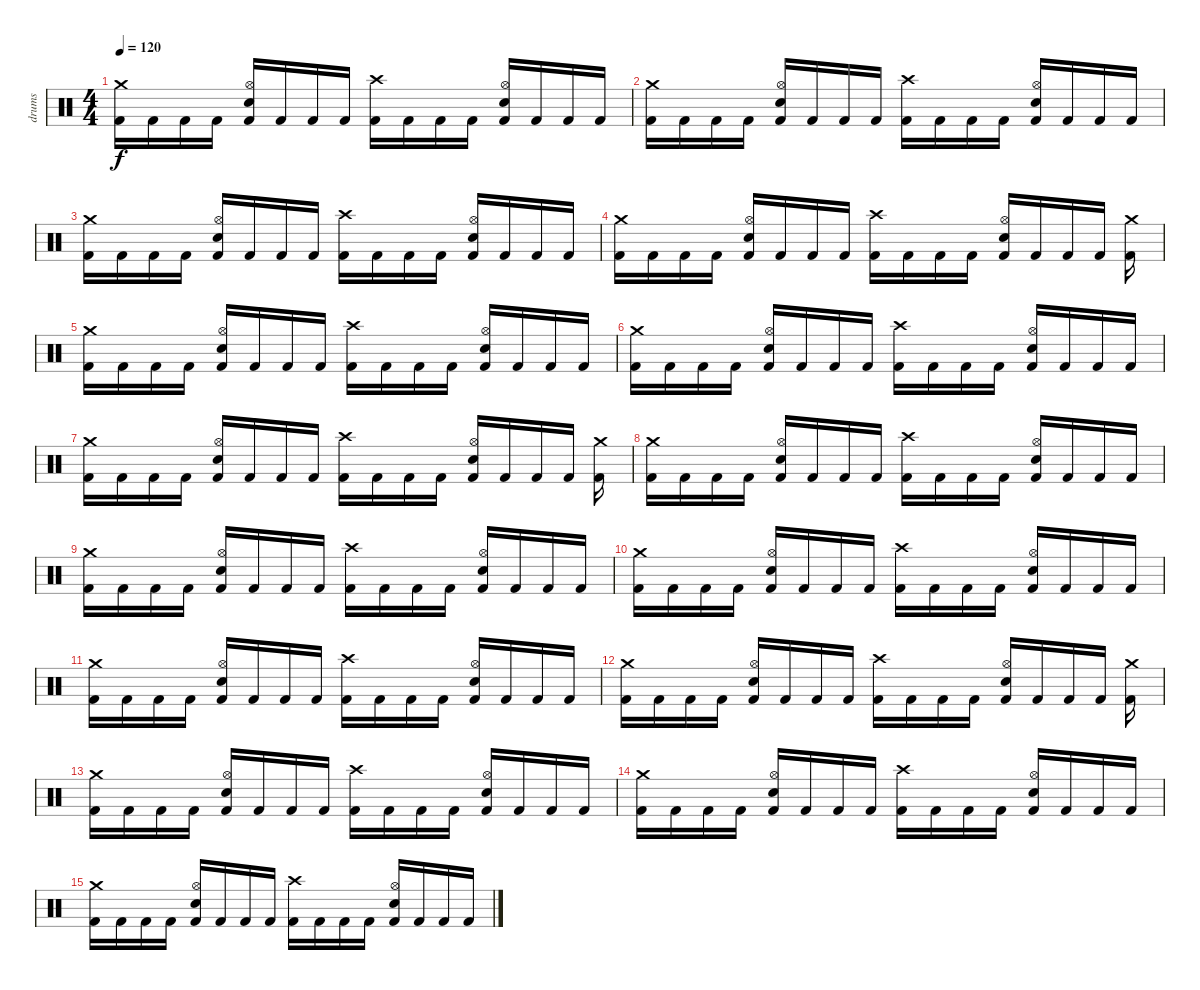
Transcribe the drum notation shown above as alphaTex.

\track ("drums" "drums") {instrument percussion}
\staff {score}
\articulation defaults
\ts (4 4)
\tempo 120
\clef neutral
\ks c
("Kick (hit) 2" "Crash medium (hit)").16{dy f} "Kick (hit) 2".16 "Kick (hit) 2".16 "Kick (hit) 2".16 ("Kick (hit) 2" "Hi-Hat (open)" "Electric Snare (hit)").16 "Kick (hit) 2".16 "Kick (hit) 2".16 "Kick (hit) 2".16 ("Kick (hit) 2" "Crash high (hit)").16 "Kick (hit) 2".16 "Kick (hit) 2".16 "Kick (hit) 2".16 ("Kick (hit) 2" "Hi-Hat (open)" "Electric Snare (hit)").16 "Kick (hit) 2".16 "Kick (hit) 2".16 "Kick (hit) 2".16 |
("Kick (hit) 2" "Crash medium (hit)").16 "Kick (hit) 2".16 "Kick (hit) 2".16 "Kick (hit) 2".16 ("Kick (hit) 2" "Hi-Hat (open)" "Electric Snare (hit)").16 "Kick (hit) 2".16 "Kick (hit) 2".16 "Kick (hit) 2".16 ("Kick (hit) 2" "Crash high (hit)").16 "Kick (hit) 2".16 "Kick (hit) 2".16 "Kick (hit) 2".16 ("Kick (hit) 2" "Hi-Hat (open)" "Electric Snare (hit)").16 "Kick (hit) 2".16 "Kick (hit) 2".16 "Kick (hit) 2".16 |
("Kick (hit) 2" "Crash medium (hit)").16 "Kick (hit) 2".16 "Kick (hit) 2".16 "Kick (hit) 2".16 ("Kick (hit) 2" "Hi-Hat (open)" "Electric Snare (hit)").16 "Kick (hit) 2".16 "Kick (hit) 2".16 "Kick (hit) 2".16 ("Kick (hit) 2" "Crash high (hit)").16 "Kick (hit) 2".16 "Kick (hit) 2".16 "Kick (hit) 2".16 ("Kick (hit) 2" "Hi-Hat (open)" "Electric Snare (hit)").16 "Kick (hit) 2".16 "Kick (hit) 2".16 "Kick (hit) 2".16 |
("Kick (hit) 2" "Crash medium (hit)").16 "Kick (hit) 2".16 "Kick (hit) 2".16 "Kick (hit) 2".16 ("Kick (hit) 2" "Hi-Hat (open)" "Electric Snare (hit)").16 "Kick (hit) 2".16 "Kick (hit) 2".16 "Kick (hit) 2".16 ("Kick (hit) 2" "Crash high (hit)").16 "Kick (hit) 2".16 "Kick (hit) 2".16 "Kick (hit) 2".16 ("Kick (hit) 2" "Hi-Hat (open)" "Electric Snare (hit)").16 "Kick (hit) 2".16 "Kick (hit) 2".16 "Kick (hit) 2".16 ("Kick (hit) 2" "Crash medium (hit)").16 |
("Kick (hit) 2" "Crash medium (hit)").16 "Kick (hit) 2".16 "Kick (hit) 2".16 "Kick (hit) 2".16 ("Kick (hit) 2" "Hi-Hat (open)" "Electric Snare (hit)").16 "Kick (hit) 2".16 "Kick (hit) 2".16 "Kick (hit) 2".16 ("Kick (hit) 2" "Crash high (hit)").16 "Kick (hit) 2".16 "Kick (hit) 2".16 "Kick (hit) 2".16 ("Kick (hit) 2" "Hi-Hat (open)" "Electric Snare (hit)").16 "Kick (hit) 2".16 "Kick (hit) 2".16 "Kick (hit) 2".16 |
("Kick (hit) 2" "Crash medium (hit)").16 "Kick (hit) 2".16 "Kick (hit) 2".16 "Kick (hit) 2".16 ("Kick (hit) 2" "Hi-Hat (open)" "Electric Snare (hit)").16 "Kick (hit) 2".16 "Kick (hit) 2".16 "Kick (hit) 2".16 ("Kick (hit) 2" "Crash high (hit)").16 "Kick (hit) 2".16 "Kick (hit) 2".16 "Kick (hit) 2".16 ("Kick (hit) 2" "Hi-Hat (open)" "Electric Snare (hit)").16 "Kick (hit) 2".16 "Kick (hit) 2".16 "Kick (hit) 2".16 |
("Kick (hit) 2" "Crash medium (hit)").16 "Kick (hit) 2".16 "Kick (hit) 2".16 "Kick (hit) 2".16 ("Kick (hit) 2" "Hi-Hat (open)" "Electric Snare (hit)").16 "Kick (hit) 2".16 "Kick (hit) 2".16 "Kick (hit) 2".16 ("Kick (hit) 2" "Crash high (hit)").16 "Kick (hit) 2".16 "Kick (hit) 2".16 "Kick (hit) 2".16 ("Kick (hit) 2" "Hi-Hat (open)" "Electric Snare (hit)").16 "Kick (hit) 2".16 "Kick (hit) 2".16 "Kick (hit) 2".16 ("Kick (hit) 2" "Crash medium (hit)").16 |
("Kick (hit) 2" "Crash medium (hit)").16 "Kick (hit) 2".16 "Kick (hit) 2".16 "Kick (hit) 2".16 ("Kick (hit) 2" "Hi-Hat (open)" "Electric Snare (hit)").16 "Kick (hit) 2".16 "Kick (hit) 2".16 "Kick (hit) 2".16 ("Kick (hit) 2" "Crash high (hit)").16 "Kick (hit) 2".16 "Kick (hit) 2".16 "Kick (hit) 2".16 ("Kick (hit) 2" "Hi-Hat (open)" "Electric Snare (hit)").16 "Kick (hit) 2".16 "Kick (hit) 2".16 "Kick (hit) 2".16 |
("Kick (hit) 2" "Crash medium (hit)").16 "Kick (hit) 2".16 "Kick (hit) 2".16 "Kick (hit) 2".16 ("Kick (hit) 2" "Hi-Hat (open)" "Electric Snare (hit)").16 "Kick (hit) 2".16 "Kick (hit) 2".16 "Kick (hit) 2".16 ("Kick (hit) 2" "Crash high (hit)").16 "Kick (hit) 2".16 "Kick (hit) 2".16 "Kick (hit) 2".16 ("Kick (hit) 2" "Hi-Hat (open)" "Electric Snare (hit)").16 "Kick (hit) 2".16 "Kick (hit) 2".16 "Kick (hit) 2".16 |
("Kick (hit) 2" "Crash medium (hit)").16 "Kick (hit) 2".16 "Kick (hit) 2".16 "Kick (hit) 2".16 ("Kick (hit) 2" "Hi-Hat (open)" "Electric Snare (hit)").16 "Kick (hit) 2".16 "Kick (hit) 2".16 "Kick (hit) 2".16 ("Kick (hit) 2" "Crash high (hit)").16 "Kick (hit) 2".16 "Kick (hit) 2".16 "Kick (hit) 2".16 ("Kick (hit) 2" "Hi-Hat (open)" "Electric Snare (hit)").16 "Kick (hit) 2".16 "Kick (hit) 2".16 "Kick (hit) 2".16 |
("Kick (hit) 2" "Crash medium (hit)").16 "Kick (hit) 2".16 "Kick (hit) 2".16 "Kick (hit) 2".16 ("Kick (hit) 2" "Hi-Hat (open)" "Electric Snare (hit)").16 "Kick (hit) 2".16 "Kick (hit) 2".16 "Kick (hit) 2".16 ("Kick (hit) 2" "Crash high (hit)").16 "Kick (hit) 2".16 "Kick (hit) 2".16 "Kick (hit) 2".16 ("Kick (hit) 2" "Hi-Hat (open)" "Electric Snare (hit)").16 "Kick (hit) 2".16 "Kick (hit) 2".16 "Kick (hit) 2".16 |
("Kick (hit) 2" "Crash medium (hit)").16 "Kick (hit) 2".16 "Kick (hit) 2".16 "Kick (hit) 2".16 ("Kick (hit) 2" "Hi-Hat (open)" "Electric Snare (hit)").16 "Kick (hit) 2".16 "Kick (hit) 2".16 "Kick (hit) 2".16 ("Kick (hit) 2" "Crash high (hit)").16 "Kick (hit) 2".16 "Kick (hit) 2".16 "Kick (hit) 2".16 ("Kick (hit) 2" "Hi-Hat (open)" "Electric Snare (hit)").16 "Kick (hit) 2".16 "Kick (hit) 2".16 "Kick (hit) 2".16 ("Kick (hit) 2" "Crash medium (hit)").16 |
("Kick (hit) 2" "Crash medium (hit)").16 "Kick (hit) 2".16 "Kick (hit) 2".16 "Kick (hit) 2".16 ("Kick (hit) 2" "Hi-Hat (open)" "Electric Snare (hit)").16 "Kick (hit) 2".16 "Kick (hit) 2".16 "Kick (hit) 2".16 ("Kick (hit) 2" "Crash high (hit)").16 "Kick (hit) 2".16 "Kick (hit) 2".16 "Kick (hit) 2".16 ("Kick (hit) 2" "Hi-Hat (open)" "Electric Snare (hit)").16 "Kick (hit) 2".16 "Kick (hit) 2".16 "Kick (hit) 2".16 |
("Kick (hit) 2" "Crash medium (hit)").16 "Kick (hit) 2".16 "Kick (hit) 2".16 "Kick (hit) 2".16 ("Kick (hit) 2" "Hi-Hat (open)" "Electric Snare (hit)").16 "Kick (hit) 2".16 "Kick (hit) 2".16 "Kick (hit) 2".16 ("Kick (hit) 2" "Crash high (hit)").16 "Kick (hit) 2".16 "Kick (hit) 2".16 "Kick (hit) 2".16 ("Kick (hit) 2" "Hi-Hat (open)" "Electric Snare (hit)").16 "Kick (hit) 2".16 "Kick (hit) 2".16 "Kick (hit) 2".16 |
("Kick (hit) 2" "Crash medium (hit)").16 "Kick (hit) 2".16 "Kick (hit) 2".16 "Kick (hit) 2".16 ("Kick (hit) 2" "Hi-Hat (open)" "Electric Snare (hit)").16 "Kick (hit) 2".16 "Kick (hit) 2".16 "Kick (hit) 2".16 ("Kick (hit) 2" "Crash high (hit)").16 "Kick (hit) 2".16 "Kick (hit) 2".16 "Kick (hit) 2".16 ("Kick (hit) 2" "Hi-Hat (open)" "Electric Snare (hit)").16 "Kick (hit) 2".16 "Kick (hit) 2".16 "Kick (hit) 2".16
